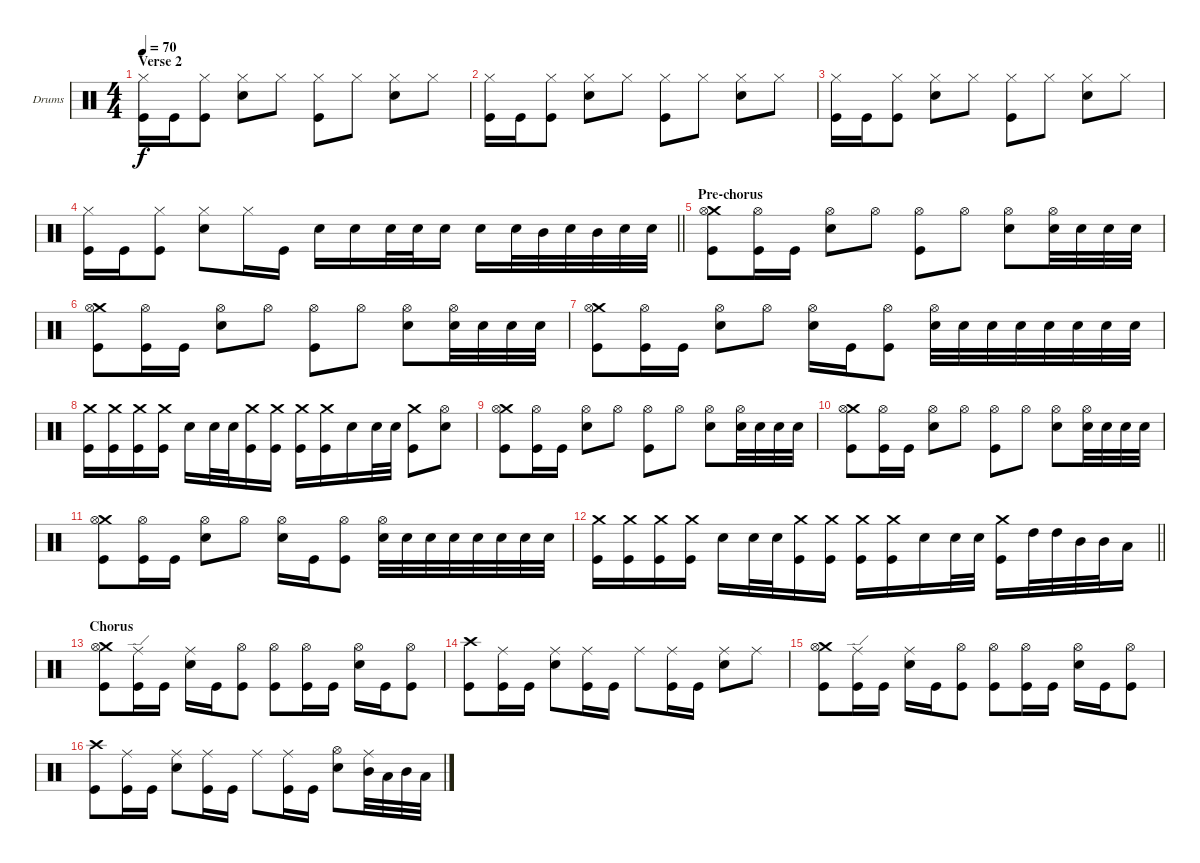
\bracketExtendMode groupsimilarinstruments
\firstSystemTrackNameOrientation horizontal
\otherSystemsTrackNameOrientation horizontal
\track ("Drumkit" "Drums") {instrument percussion}
\staff {score}
\articulation defaults
\ts (4 4)
\section ("" "Verse 2")
\tempo 70
\clef neutral
\ks c
("Hi-Hat (closed)" "Kick (hit)").16{dy f} "Kick (hit)".16 ("Hi-Hat (closed)" "Kick (hit)").8 ("Hi-Hat (closed)" "Snare (hit) 2").8 "Hi-Hat (closed)".8 ("Hi-Hat (closed)" "Kick (hit)").8 "Hi-Hat (closed)".8 ("Hi-Hat (closed)" "Snare (hit) 2").8 "Hi-Hat (closed)".8 |
("Hi-Hat (closed)" "Kick (hit)").16 "Kick (hit)".16 ("Hi-Hat (closed)" "Kick (hit)").8 ("Hi-Hat (closed)" "Snare (hit) 2").8 "Hi-Hat (closed)".8 ("Hi-Hat (closed)" "Kick (hit)").8 "Hi-Hat (closed)".8 ("Hi-Hat (closed)" "Snare (hit) 2").8 "Hi-Hat (closed)".8 |
("Hi-Hat (closed)" "Kick (hit)").16 "Kick (hit)".16 ("Hi-Hat (closed)" "Kick (hit)").8 ("Hi-Hat (closed)" "Snare (hit) 2").8 "Hi-Hat (closed)".8 ("Hi-Hat (closed)" "Kick (hit)").8 "Hi-Hat (closed)".8 ("Hi-Hat (closed)" "Snare (hit) 2").8 "Hi-Hat (closed)".8 |
\barLineRight lightlight
("Hi-Hat (closed)" "Kick (hit)").16 "Kick (hit)".16 ("Hi-Hat (closed)" "Kick (hit)").8 ("Hi-Hat (closed)" "Snare (hit) 2").8 "Hi-Hat (closed)".16 "Kick (hit)".16 "Snare (hit) 2".16 "Snare (hit) 2".16 "Snare (hit) 2".32 "Snare (hit) 2".32 "Snare (hit) 2".16 "Snare (hit) 2".16 "Snare (hit) 2".32 "Mid Tom (hit)".32 "Snare (hit) 2".32 "Mid Tom (hit)".32 "Snare (hit) 2".32 "Snare (hit) 2".32 |
\section ("" "Pre-chorus")
("Crash medium (hit)" "Hi-Hat (open)" "Kick (hit)").8 ("Hi-Hat (open)" "Kick (hit)").16 "Kick (hit)".16 ("Hi-Hat (open)" "Snare (hit) 2").8 "Hi-Hat (open)".8 ("Hi-Hat (open)" "Kick (hit)").8 "Hi-Hat (open)".8 ("Hi-Hat (open)" "Snare (hit) 2").8 ("Hi-Hat (open)" "Snare (hit) 2").32 "Snare (hit) 2".32 "Snare (hit) 2".32 "Snare (hit) 2".32 |
("Crash medium (hit)" "Hi-Hat (open)" "Kick (hit)").8 ("Hi-Hat (open)" "Kick (hit)").16 "Kick (hit)".16 ("Hi-Hat (open)" "Snare (hit) 2").8 "Hi-Hat (open)".8 ("Hi-Hat (open)" "Kick (hit)").8 "Hi-Hat (open)".8 ("Hi-Hat (open)" "Snare (hit) 2").8 ("Hi-Hat (open)" "Snare (hit) 2").32 "Snare (hit) 2".32 "Snare (hit) 2".32 "Snare (hit) 2".32 |
("Crash medium (hit)" "Hi-Hat (open)" "Kick (hit)").8 ("Hi-Hat (open)" "Kick (hit)").16 "Kick (hit)".16 ("Hi-Hat (open)" "Snare (hit) 2").8 "Hi-Hat (open)".8 ("Hi-Hat (open)" "Snare (hit) 2").16 "Kick (hit)".16 ("Hi-Hat (open)" "Kick (hit)").8 ("Hi-Hat (open)" "Snare (hit) 2").32 "Snare (hit) 2".32 "Snare (hit) 2".32 "Snare (hit) 2".32 "Snare (hit) 2".32 "Snare (hit) 2".32 "Snare (hit) 2".32 "Snare (hit) 2".32 |
("Crash medium (hit)" "Kick (hit)").16 ("Crash medium (hit)" "Kick (hit)").16 ("Crash medium (hit)" "Kick (hit)").16 ("Crash medium (hit)" "Kick (hit)").16 "Snare (hit) 2".16 "Snare (hit) 2".32 "Snare (hit) 2".32 ("Crash medium (hit)" "Kick (hit)").16 ("Crash medium (hit)" "Kick (hit)").16 ("Crash medium (hit)" "Kick (hit)").16 ("Crash medium (hit)" "Kick (hit)").16 "Snare (hit) 2".16 "Snare (hit) 2".32 "Snare (hit) 2".32 ("Crash medium (hit)" "Kick (hit)").8 ("Hi-Hat (open)" "Snare (hit) 2").8 |
("Crash medium (hit)" "Hi-Hat (open)" "Kick (hit)").8 ("Hi-Hat (open)" "Kick (hit)").16 "Kick (hit)".16 ("Hi-Hat (open)" "Snare (hit) 2").8 "Hi-Hat (open)".8 ("Hi-Hat (open)" "Kick (hit)").8 "Hi-Hat (open)".8 ("Hi-Hat (open)" "Snare (hit) 2").8 ("Hi-Hat (open)" "Snare (hit) 2").32 "Snare (hit) 2".32 "Snare (hit) 2".32 "Snare (hit) 2".32 |
("Crash medium (hit)" "Hi-Hat (open)" "Kick (hit)").8 ("Hi-Hat (open)" "Kick (hit)").16 "Kick (hit)".16 ("Hi-Hat (open)" "Snare (hit) 2").8 "Hi-Hat (open)".8 ("Hi-Hat (open)" "Kick (hit)").8 "Hi-Hat (open)".8 ("Hi-Hat (open)" "Snare (hit) 2").8 ("Hi-Hat (open)" "Snare (hit) 2").32 "Snare (hit) 2".32 "Snare (hit) 2".32 "Snare (hit) 2".32 |
("Crash medium (hit)" "Hi-Hat (open)" "Kick (hit)").8 ("Hi-Hat (open)" "Kick (hit)").16 "Kick (hit)".16 ("Hi-Hat (open)" "Snare (hit) 2").8 "Hi-Hat (open)".8 ("Hi-Hat (open)" "Snare (hit) 2").16 "Kick (hit)".16 ("Hi-Hat (open)" "Kick (hit)").8 ("Hi-Hat (open)" "Snare (hit) 2").32 "Snare (hit) 2".32 "Snare (hit) 2".32 "Snare (hit) 2".32 "Snare (hit) 2".32 "Snare (hit) 2".32 "Snare (hit) 2".32 "Snare (hit) 2".32 |
\barLineRight lightlight
("Crash medium (hit)" "Kick (hit)").16 ("Crash medium (hit)" "Kick (hit)").16 ("Crash medium (hit)" "Kick (hit)").16 ("Crash medium (hit)" "Kick (hit)").16 "Snare (hit) 2".16 "Snare (hit) 2".32 "Snare (hit) 2".32 ("Crash medium (hit)" "Kick (hit)").16 ("Crash medium (hit)" "Kick (hit)").16 ("Crash medium (hit)" "Kick (hit)").16 ("Crash medium (hit)" "Kick (hit)").16 "Snare (hit) 2".16 "Snare (hit) 2".32 "Snare (hit) 2".32 ("Crash medium (hit)" "Kick (hit)").16 "High Tom (hit)".32 "High Tom (hit)".32 "Mid Tom (hit)".32 "Mid Tom (hit)".32 "Low Tom (hit)".16 |
\section ("" "Chorus")
("Crash medium (hit)" "Hi-Hat (open)" "Kick (hit)").8 ("Ride (edge)" "Kick (hit)").16 "Kick (hit)".16 ("Ride (middle)" "Snare (hit) 2").16 "Kick (hit)".16 ("Hi-Hat (open)" "Kick (hit)").8 ("Hi-Hat (open)" "Kick (hit)").8 ("Hi-Hat (open)" "Kick (hit)").16 "Kick (hit)".16 ("Hi-Hat (open)" "Snare (hit) 2").16 "Kick (hit)".16 ("Hi-Hat (open)" "Kick (hit)").8 |
("Crash high (hit)" "Kick (hit)").8 ("Ride (middle)" "Kick (hit)").16 "Kick (hit)".16 ("Ride (middle)" "Snare (hit) 2").8 ("Ride (middle)" "Kick (hit)").16 "Kick (hit)".16 "Ride (middle)".8 ("Ride (middle)" "Kick (hit)").16 "Kick (hit)".16 ("Ride (middle)" "Snare (hit) 2").8 "Ride (middle)".8 |
("Crash medium (hit)" "Hi-Hat (open)" "Kick (hit)").8 ("Ride (edge)" "Kick (hit)").16 "Kick (hit)".16 ("Ride (middle)" "Snare (hit) 2").16 "Kick (hit)".16 ("Hi-Hat (open)" "Kick (hit)").8 ("Hi-Hat (open)" "Kick (hit)").8 ("Hi-Hat (open)" "Kick (hit)").16 "Kick (hit)".16 ("Hi-Hat (open)" "Snare (hit) 2").16 "Kick (hit)".16 ("Hi-Hat (open)" "Kick (hit)").8 |
("Crash high (hit)" "Kick (hit)").8 ("Ride (middle)" "Kick (hit)").16 "Kick (hit)".16 ("Ride (middle)" "Snare (hit) 2").8 ("Ride (middle)" "Kick (hit)").16 "Kick (hit)".16 "Ride (middle)".8 ("Ride (middle)" "Kick (hit)").16 "Kick (hit)".16 ("Hi-Hat (open)" "Snare (hit) 2").8 ("Ride (middle)" "Mid Tom (hit)").32 "Low Tom (hit)".32 "Mid Tom (hit)".32 "Low Tom (hit)".32
